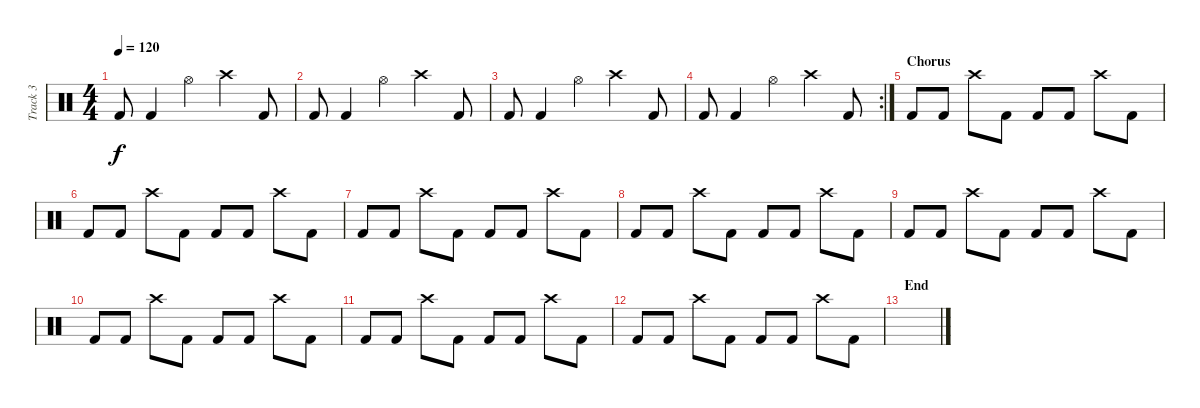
\track ("Track 3" "Track 3") {instrument percussion}
\staff {score}
\articulation defaults
\ts (4 4)
\tempo 120
\clef neutral
\ks c "Kick (hit) 2".8{dy f} "Kick (hit) 2".4 "Hi-Hat (open)".4 "Crash high (hit)".4 "Kick (hit) 2".8
|
"Kick (hit) 2".8 "Kick (hit) 2".4 "Hi-Hat (open)".4 "Crash high (hit)".4 "Kick (hit) 2".8 |
"Kick (hit) 2".8 "Kick (hit) 2".4 "Hi-Hat (open)".4 "Crash high (hit)".4 "Kick (hit) 2".8 |
\rc 2 "Kick (hit) 2".8 "Kick (hit) 2".4 "Hi-Hat (open)".4 "Crash high (hit)".4 "Kick (hit) 2".8
|
\section ("" "Chorus")
"Kick (hit) 2".8 "Kick (hit) 2".8 "Crash high (hit)".8 "Kick (hit) 2".8 "Kick (hit) 2".8 "Kick (hit) 2".8 "Crash high (hit)".8 "Kick (hit) 2".8 |
"Kick (hit) 2".8 "Kick (hit) 2".8 "Crash high (hit)".8 "Kick (hit) 2".8 "Kick (hit) 2".8 "Kick (hit) 2".8 "Crash high (hit)".8 "Kick (hit) 2".8 |
"Kick (hit) 2".8 "Kick (hit) 2".8 "Crash high (hit)".8 "Kick (hit) 2".8 "Kick (hit) 2".8 "Kick (hit) 2".8 "Crash high (hit)".8 "Kick (hit) 2".8 |
"Kick (hit) 2".8 "Kick (hit) 2".8 "Crash high (hit)".8 "Kick (hit) 2".8 "Kick (hit) 2".8 "Kick (hit) 2".8 "Crash high (hit)".8 "Kick (hit) 2".8 |
"Kick (hit) 2".8 "Kick (hit) 2".8 "Crash high (hit)".8 "Kick (hit) 2".8 "Kick (hit) 2".8 "Kick (hit) 2".8 "Crash high (hit)".8 "Kick (hit) 2".8 |
"Kick (hit) 2".8 "Kick (hit) 2".8 "Crash high (hit)".8 "Kick (hit) 2".8 "Kick (hit) 2".8 "Kick (hit) 2".8 "Crash high (hit)".8 "Kick (hit) 2".8 |
"Kick (hit) 2".8 "Kick (hit) 2".8 "Crash high (hit)".8 "Kick (hit) 2".8 "Kick (hit) 2".8 "Kick (hit) 2".8 "Crash high (hit)".8 "Kick (hit) 2".8 |
"Kick (hit) 2".8 "Kick (hit) 2".8 "Crash high (hit)".8 "Kick (hit) 2".8 "Kick (hit) 2".8 "Kick (hit) 2".8 "Crash high (hit)".8 "Kick (hit) 2".8 |
\section ("" "End")
